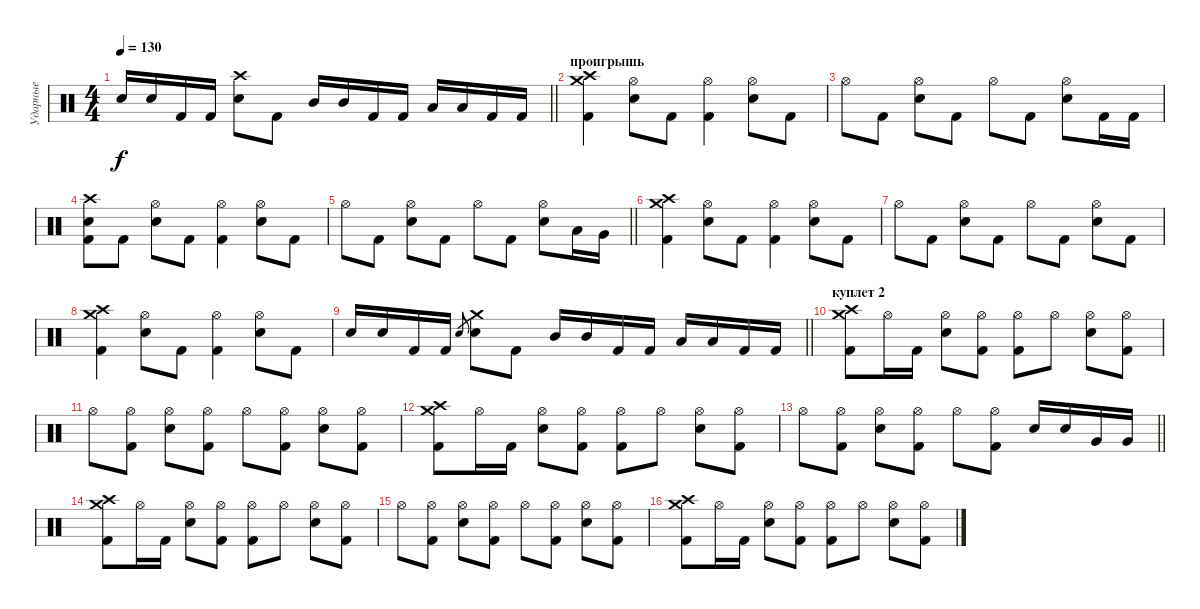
\track ("Ударные" "Ударные") {instrument percussion}
\staff
\articulation defaults
\ts (4 4)
\tempo 130
\clef neutral
\barLineRight lightlight
\ks c "Electric Snare (hit)".16{dy f} "Electric Snare (hit)".16 "Kick (hit) 2".16 "Kick (hit) 2".16
("Crash high (hit)" "Electric Snare (hit)").8 "Kick (hit) 2".8 "Mid Tom (hit)".16 "Mid Tom (hit)".16 "Kick (hit) 2".16 "Kick (hit) 2".16 "Low Tom (hit)".16 "Low Tom (hit)".16 "Kick (hit) 2".16 "Kick (hit) 2".16 |
\section ("" "проигрышь")
("Crash high (hit)" "Crash medium (hit)" "Kick (hit) 2").4 ("Hi-Hat (open)" "Electric Snare (hit)").8 "Kick (hit) 2".8 ("Hi-Hat (open)" "Kick (hit) 2").4 ("Hi-Hat (open)" "Electric Snare (hit)").8 "Kick (hit) 2".8 |
"Hi-Hat (open)".8 "Kick (hit) 2".8 ("Hi-Hat (open)" "Electric Snare (hit)").8 "Kick (hit) 2".8 "Hi-Hat (open)".8 "Kick (hit) 2".8 ("Hi-Hat (open)" "Electric Snare (hit)").8 "Kick (hit) 2".16 "Kick (hit) 2".16 |
("Crash high (hit)" "Electric Snare (hit)" "Kick (hit) 2").8 "Kick (hit) 2".8 ("Hi-Hat (open)" "Electric Snare (hit)").8 "Kick (hit) 2".8 ("Hi-Hat (open)" "Kick (hit) 2").4 ("Hi-Hat (open)" "Electric Snare (hit)").8 "Kick (hit) 2".8 |
\barLineRight lightlight "Hi-Hat (open)".8 "Kick (hit) 2".8
("Hi-Hat (open)" "Electric Snare (hit)").8 "Kick (hit) 2".8 "Hi-Hat (open)".8 "Kick (hit) 2".8 ("Hi-Hat (open)" "Electric Snare (hit)").8 "Low Tom (hit)".16 "Very Low Tom (hit)".16 |
("Crash high (hit)" "Crash medium (hit)" "Kick (hit) 2").4 ("Hi-Hat (open)" "Electric Snare (hit)").8 "Kick (hit) 2".8 ("Hi-Hat (open)" "Kick (hit) 2").4 ("Hi-Hat (open)" "Electric Snare (hit)").8 "Kick (hit) 2".8 |
"Hi-Hat (open)".8 "Kick (hit) 2".8 ("Hi-Hat (open)" "Electric Snare (hit)").8 "Kick (hit) 2".8 "Hi-Hat (open)".8 "Kick (hit) 2".8 ("Hi-Hat (open)" "Electric Snare (hit)").8 "Kick (hit) 2".8 |
("Crash high (hit)" "Crash medium (hit)" "Kick (hit) 2").4 ("Hi-Hat (open)" "Electric Snare (hit)").8 "Kick (hit) 2".8 ("Hi-Hat (open)" "Kick (hit) 2").4 ("Hi-Hat (open)" "Electric Snare (hit)").8 "Kick (hit) 2".8 |
\barLineRight lightlight "Electric Snare (hit)".16 "Electric Snare (hit)".16 "Kick (hit) 2".16 "Kick (hit) 2".16 "Electric Snare (hit)".8{gr}
("Crash medium (hit)" "Electric Snare (hit)").8 "Kick (hit) 2".8 "Mid Tom (hit)".16 "Mid Tom (hit)".16 "Kick (hit) 2".16 "Kick (hit) 2".16 "Low Tom (hit)".16 "Low Tom (hit)".16 "Kick (hit) 2".16 "Kick (hit) 2".16 |
\section ("" "куплет 2")
("Crash high (hit)" "Crash medium (hit)" "Kick (hit) 2").8 "Hi-Hat (open)".16 "Kick (hit) 2".16 ("Hi-Hat (open)" "Electric Snare (hit)").8 ("Hi-Hat (open)" "Kick (hit) 2").8 ("Hi-Hat (open)" "Kick (hit) 2").8 "Hi-Hat (open)".8 ("Hi-Hat (open)" "Electric Snare (hit)").8 ("Hi-Hat (open)" "Kick (hit) 2").8 |
"Hi-Hat (open)".8 ("Hi-Hat (open)" "Kick (hit) 2").8 ("Hi-Hat (open)" "Electric Snare (hit)").8 ("Hi-Hat (open)" "Kick (hit) 2").8 "Hi-Hat (open)".8 ("Hi-Hat (open)" "Kick (hit) 2").8 ("Hi-Hat (open)" "Electric Snare (hit)").8 ("Hi-Hat (open)" "Kick (hit) 2").8 |
("Crash high (hit)" "Crash medium (hit)" "Kick (hit) 2").8 "Hi-Hat (open)".16 "Kick (hit) 2".16 ("Hi-Hat (open)" "Electric Snare (hit)").8 ("Hi-Hat (open)" "Kick (hit) 2").8 ("Hi-Hat (open)" "Kick (hit) 2").8 "Hi-Hat (open)".8 ("Hi-Hat (open)" "Electric Snare (hit)").8 ("Hi-Hat (open)" "Kick (hit) 2").8 |
\barLineRight lightlight "Hi-Hat (open)".8
("Hi-Hat (open)" "Kick (hit) 2").8 ("Hi-Hat (open)" "Electric Snare (hit)").8 ("Hi-Hat (open)" "Kick (hit) 2").8 "Hi-Hat (open)".8 ("Hi-Hat (open)" "Kick (hit) 2").8 "Electric Snare (hit)".16 "Electric Snare (hit)".16 "Very Low Tom (hit)".16 "Very Low Tom (hit)".16 |
("Crash high (hit)" "Crash medium (hit)" "Kick (hit) 2").8 "Hi-Hat (open)".16 "Kick (hit) 2".16 ("Hi-Hat (open)" "Electric Snare (hit)").8 ("Hi-Hat (open)" "Kick (hit) 2").8 ("Hi-Hat (open)" "Kick (hit) 2").8 "Hi-Hat (open)".8 ("Hi-Hat (open)" "Electric Snare (hit)").8 ("Hi-Hat (open)" "Kick (hit) 2").8 |
"Hi-Hat (open)".8 ("Hi-Hat (open)" "Kick (hit) 2").8 ("Hi-Hat (open)" "Electric Snare (hit)").8 ("Hi-Hat (open)" "Kick (hit) 2").8 "Hi-Hat (open)".8 ("Hi-Hat (open)" "Kick (hit) 2").8 ("Hi-Hat (open)" "Electric Snare (hit)").8 ("Hi-Hat (open)" "Kick (hit) 2").8 |
("Crash high (hit)" "Crash medium (hit)" "Kick (hit) 2").8 "Hi-Hat (open)".16 "Kick (hit) 2".16 ("Hi-Hat (open)" "Electric Snare (hit)").8 ("Hi-Hat (open)" "Kick (hit) 2").8 ("Hi-Hat (open)" "Kick (hit) 2").8 "Hi-Hat (open)".8 ("Hi-Hat (open)" "Electric Snare (hit)").8 ("Hi-Hat (open)" "Kick (hit) 2").8
